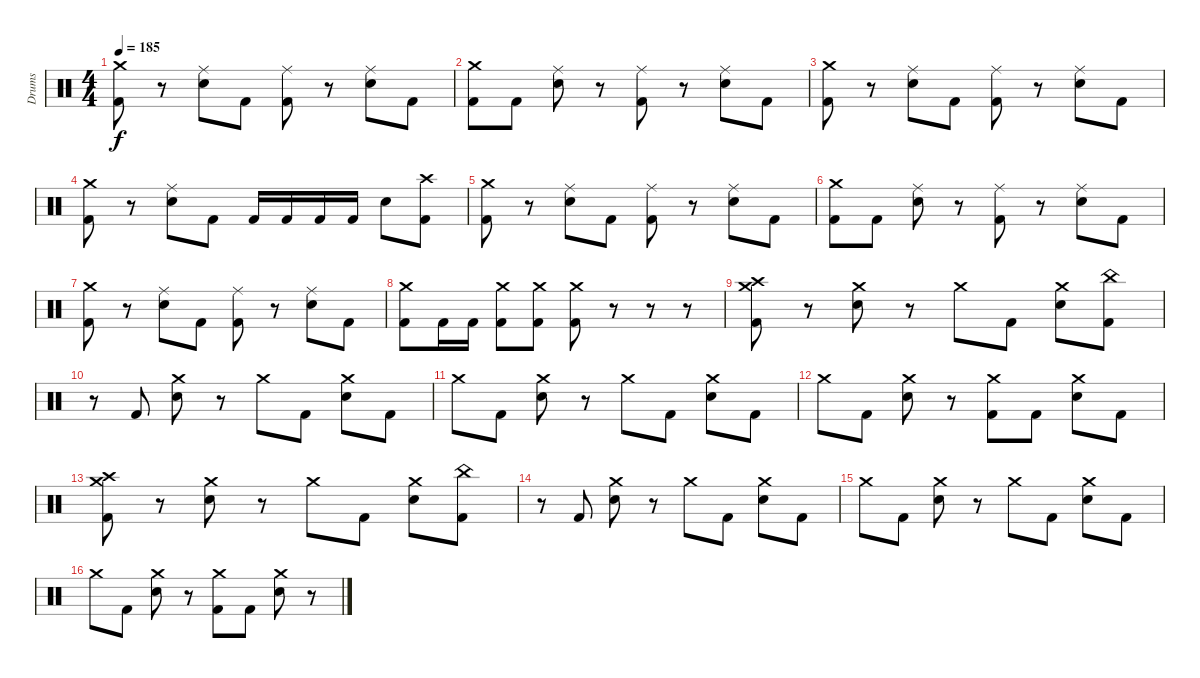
\track ("Drums" "Drums") {instrument percussion}
\staff {score}
\articulation defaults
\ts (4 4)
\tempo 185
\clef neutral
\ks c
("Crash medium (hit)" "Kick (hit) 2").8{dy f} r.8 ("Snare (hit) 2" "Ride (middle)").8 "Kick (hit) 2".8 ("Ride (middle)" "Kick (hit) 2").8 r.8 ("Snare (hit) 2" "Ride (middle)").8 "Kick (hit) 2".8 |
("Crash medium (hit)" "Kick (hit) 2").8 "Kick (hit) 2".8 ("Snare (hit) 2" "Ride (middle)").8 r.8 ("Ride (middle)" "Kick (hit) 2").8 r.8 ("Snare (hit) 2" "Ride (middle)").8 "Kick (hit) 2".8 |
("Crash medium (hit)" "Kick (hit) 2").8 r.8 ("Snare (hit) 2" "Ride (middle)").8 "Kick (hit) 2".8 ("Ride (middle)" "Kick (hit) 2").8 r.8 ("Snare (hit) 2" "Ride (middle)").8 "Kick (hit) 2".8 |
("Crash medium (hit)" "Kick (hit) 2").8 r.8 ("Snare (hit) 2" "Ride (middle)").8 "Kick (hit) 2".8 "Kick (hit) 2".16 "Kick (hit) 2".16 "Kick (hit) 2".16 "Kick (hit) 2".16 "Snare (hit) 2".8 ("Crash high (hit)" "Kick (hit) 2").8 |
("Crash medium (hit)" "Kick (hit) 2").8 r.8 ("Snare (hit) 2" "Ride (middle)").8 "Kick (hit) 2".8 ("Ride (middle)" "Kick (hit) 2").8 r.8 ("Snare (hit) 2" "Ride (middle)").8 "Kick (hit) 2".8 |
("Crash medium (hit)" "Kick (hit) 2").8 "Kick (hit) 2".8 ("Snare (hit) 2" "Ride (middle)").8 r.8 ("Ride (middle)" "Kick (hit) 2").8 r.8 ("Snare (hit) 2" "Ride (middle)").8 "Kick (hit) 2".8 |
("Crash medium (hit)" "Kick (hit) 2").8 r.8 ("Snare (hit) 2" "Ride (middle)").8 "Kick (hit) 2".8 ("Ride (middle)" "Kick (hit) 2").8 r.8 ("Snare (hit) 2" "Ride (middle)").8 "Kick (hit) 2".8 |
("Crash medium (hit)" "Kick (hit) 2").8 "Kick (hit) 2".16 "Kick (hit) 2".16 ("Crash medium (hit)" "Kick (hit) 2").8 ("Crash medium (hit)" "Kick (hit) 2").8 ("Crash medium (hit)" "Kick (hit) 2").8 r.8 r.8 r.8 |
("Crash medium (hit)" "Crash high (hit)" "Kick (hit) 2").8 r.8 ("Crash medium (hit)" "Snare (hit) 2").8 r.8 "Crash medium (hit)".8 "Kick (hit) 2".8 ("Crash medium (hit)" "Snare (hit) 2").8 ("China (hit)" "Kick (hit) 2").8 |
r.8 "Kick (hit) 2".8 ("Crash medium (hit)" "Snare (hit) 2").8 r.8 "Crash medium (hit)".8 "Kick (hit) 2".8 ("Crash medium (hit)" "Snare (hit) 2").8 "Kick (hit) 2".8 |
"Crash medium (hit)".8 "Kick (hit) 2".8 ("Crash medium (hit)" "Snare (hit) 2").8 r.8 "Crash medium (hit)".8 "Kick (hit) 2".8 ("Crash medium (hit)" "Snare (hit) 2").8 "Kick (hit) 2".8 |
"Crash medium (hit)".8 "Kick (hit) 2".8 ("Crash medium (hit)" "Snare (hit) 2").8 r.8 ("Crash medium (hit)" "Kick (hit) 2").8 "Kick (hit) 2".8 ("Crash medium (hit)" "Snare (hit) 2").8 "Kick (hit) 2".8 |
("Crash medium (hit)" "Crash high (hit)" "Kick (hit) 2").8 r.8 ("Crash medium (hit)" "Snare (hit) 2").8 r.8 "Crash medium (hit)".8 "Kick (hit) 2".8 ("Crash medium (hit)" "Snare (hit) 2").8 ("China (hit)" "Kick (hit) 2").8 |
r.8 "Kick (hit) 2".8 ("Crash medium (hit)" "Snare (hit) 2").8 r.8 "Crash medium (hit)".8 "Kick (hit) 2".8 ("Crash medium (hit)" "Snare (hit) 2").8 "Kick (hit) 2".8 |
"Crash medium (hit)".8 "Kick (hit) 2".8 ("Crash medium (hit)" "Snare (hit) 2").8 r.8 "Crash medium (hit)".8 "Kick (hit) 2".8 ("Crash medium (hit)" "Snare (hit) 2").8 "Kick (hit) 2".8 |
"Crash medium (hit)".8 "Kick (hit) 2".8 ("Crash medium (hit)" "Snare (hit) 2").8 r.8 ("Crash medium (hit)" "Kick (hit) 2").8 "Kick (hit) 2".8 ("Crash medium (hit)" "Snare (hit) 2").8 r.8
